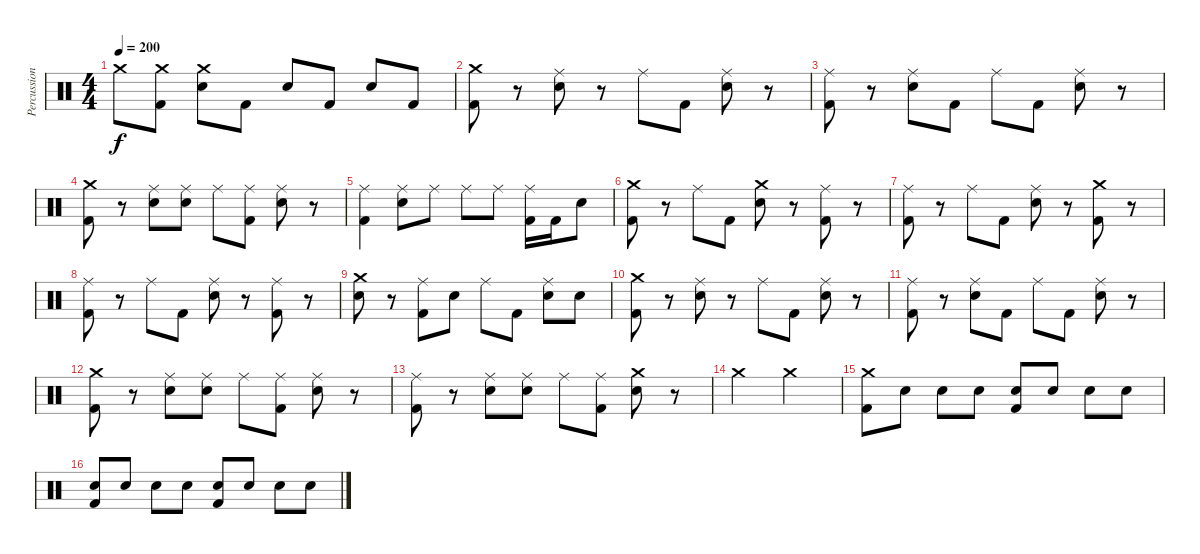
\track ("Percussion" "Percussion") {instrument percussion}
\staff {score}
\articulation defaults
\ts (4 4)
\tempo 200
\clef neutral
\ks c "Crash medium (hit)".8{dy f}
("Crash medium (hit)" "Kick (hit) 2").8 ("Crash medium (hit)" "Snare (hit) 2").8 "Kick (hit) 2".8 "Snare (hit) 2".8 "Kick (hit) 2".8 "Snare (hit) 2".8 "Kick (hit) 2".8 |
("Crash medium (hit)" "Kick (hit) 2").8 r.8 ("Ride (middle)" "Snare (hit) 2").8 r.8 "Ride (middle)".8 "Kick (hit) 2".8 ("Ride (middle)" "Snare (hit) 2").8 r.8 |
("Ride (middle)" "Kick (hit) 2").8 r.8 ("Ride (middle)" "Snare (hit) 2").8 "Kick (hit) 2".8 "Ride (middle)".8 "Kick (hit) 2".8 ("Ride (middle)" "Snare (hit) 2").8 r.8 |
("Crash medium (hit)" "Kick (hit) 2").8 r.8 ("Ride (middle)" "Snare (hit) 2").8 ("Ride (middle)" "Snare (hit) 2").8 "Ride (middle)".8 ("Ride (middle)" "Kick (hit) 2").8 ("Ride (middle)" "Snare (hit) 2").8 r.8 |
("Ride (middle)" "Kick (hit) 2").4 ("Ride (middle)" "Snare (hit) 2").8 "Ride (middle)".8 "Ride (middle)".8 "Ride (middle)".8 ("Ride (middle)" "Kick (hit) 2").16 "Kick (hit) 2".16 "Snare (hit) 2".8 |
("Crash medium (hit)" "Kick (hit) 2").8 r.8 "Ride (middle)".8 "Kick (hit) 2".8 ("Crash medium (hit)" "Snare (hit) 2").8 r.8 ("Ride (middle)" "Kick (hit) 2").8 r.8 |
("Ride (middle)" "Kick (hit) 2").8 r.8 "Ride (middle)".8 "Kick (hit) 2".8 ("Ride (middle)" "Snare (hit) 2").8 r.8 ("Crash medium (hit)" "Kick (hit) 2").8 r.8 |
("Ride (middle)" "Kick (hit) 2").8 r.8 "Ride (middle)".8 "Kick (hit) 2".8 ("Ride (middle)" "Snare (hit) 2").8 r.8 ("Ride (middle)" "Kick (hit) 2").8 r.8 |
("Crash medium (hit)" "Snare (hit) 2").8 r.8 ("Ride (middle)" "Kick (hit) 2").8 "Snare (hit) 2".8 "Ride (middle)".8 "Kick (hit) 2".8 ("Ride (middle)" "Snare (hit) 2").8 "Snare (hit) 2".8 |
("Crash medium (hit)" "Kick (hit) 2").8 r.8 ("Ride (middle)" "Snare (hit) 2").8 r.8 "Ride (middle)".8 "Kick (hit) 2".8 ("Ride (middle)" "Snare (hit) 2").8 r.8 |
("Ride (middle)" "Kick (hit) 2").8 r.8 ("Ride (middle)" "Snare (hit) 2").8 "Kick (hit) 2".8 "Ride (middle)".8 "Kick (hit) 2".8 ("Ride (middle)" "Snare (hit) 2").8 r.8 |
("Crash medium (hit)" "Kick (hit) 2").8 r.8 ("Ride (middle)" "Snare (hit) 2").8 ("Ride (middle)" "Snare (hit) 2").8 "Ride (middle)".8 ("Ride (middle)" "Kick (hit) 2").8 ("Ride (middle)" "Snare (hit) 2").8 r.8 |
("Ride (middle)" "Kick (hit) 2").8 r.8 ("Ride (middle)" "Snare (hit) 2").8 ("Ride (middle)" "Snare (hit) 2").8 "Ride (middle)".8 ("Ride (middle)" "Kick (hit) 2").8 ("Crash medium (hit)" "Snare (hit) 2").8 r.8 |
"Crash medium (hit)".2 "Crash medium (hit)".2 |
("Crash medium (hit)" "Kick (hit) 2").8 "Snare (hit) 2".8 "Snare (hit) 2".8 "Snare (hit) 2".8 ("Snare (hit) 2" "Kick (hit) 2").8 "Snare (hit) 2".8 "Snare (hit) 2".8 "Snare (hit) 2".8 |
("Snare (hit) 2" "Kick (hit) 2").8 "Snare (hit) 2".8 "Snare (hit) 2".8 "Snare (hit) 2".8 ("Snare (hit) 2" "Kick (hit) 2").8 "Snare (hit) 2".8 "Snare (hit) 2".8 "Snare (hit) 2".8
